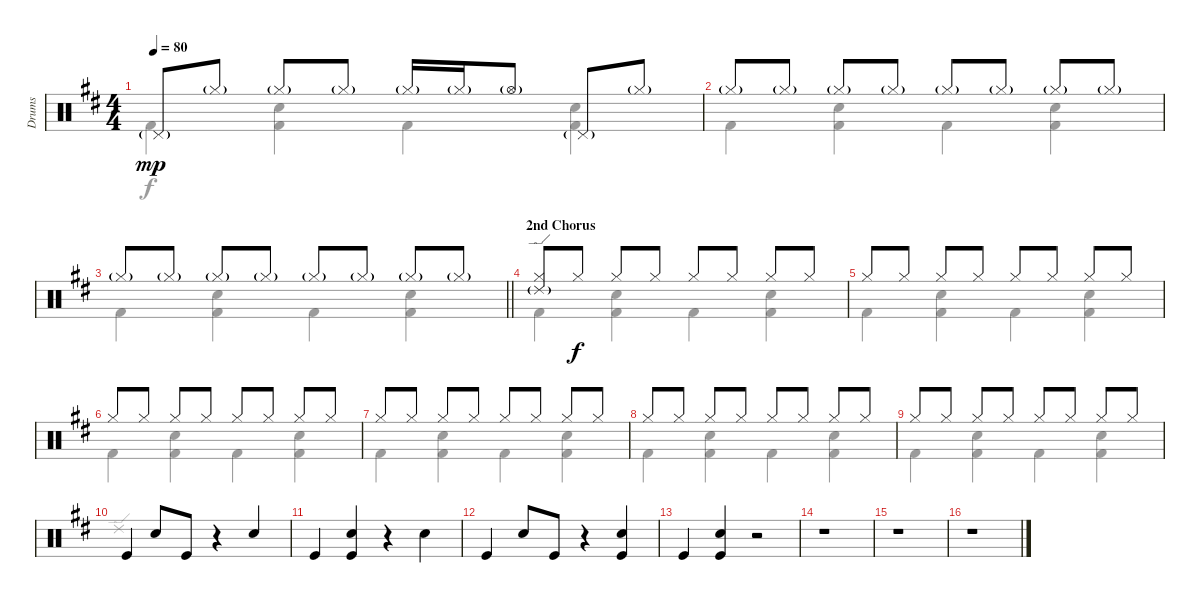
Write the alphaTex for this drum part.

\track ("Drums" "Drums") {instrument percussion}
\staff {score}
\articulation defaults
\voice
\ts (4 4)
\tempo 80
\clef neutral
\ks d "Pedal Hi-Hat (hit)"{g}.8{dy mp} "Hi-Hat (closed)"{g}.8 "Hi-Hat (closed)"{g}.8 "Hi-Hat (closed)"{g}.8 "Hi-Hat (closed)"{g}.16 "Hi-Hat (closed)"{g}.16 "Hi-Hat (open)"{g}.8 "Pedal Hi-Hat (hit)"{g}.8 "Hi-Hat (closed)"{g}.8
|
"Hi-Hat (closed)"{g}.8 "Hi-Hat (closed)"{g}.8 "Hi-Hat (closed)"{g}.8 "Hi-Hat (closed)"{g}.8 "Hi-Hat (closed)"{g}.8 "Hi-Hat (closed)"{g}.8 "Hi-Hat (closed)"{g}.8 "Hi-Hat (closed)"{g}.8 |
\barLineRight lightlight "Hi-Hat (closed)"{g}.8 "Hi-Hat (closed)"{g}.8 "Hi-Hat (closed)"{g}.8 "Hi-Hat (closed)"{g}.8 "Hi-Hat (closed)"{g}.8 "Hi-Hat (closed)"{g}.8 "Hi-Hat (closed)"{g}.8 "Hi-Hat (closed)"{g}.8
|
\section ("" "2nd Chorus")
("Hi-Hat (closed)" "Ride (edge) 2"{g}).8 "Hi-Hat (closed)".8{dy f} "Hi-Hat (closed)".8 "Hi-Hat (closed)".8 "Hi-Hat (closed)".8 "Hi-Hat (closed)".8 "Hi-Hat (closed)".8 "Hi-Hat (closed)".8 |
"Hi-Hat (closed)".8 "Hi-Hat (closed)".8 "Hi-Hat (closed)".8 "Hi-Hat (closed)".8 "Hi-Hat (closed)".8 "Hi-Hat (closed)".8 "Hi-Hat (closed)".8 "Hi-Hat (closed)".8 |
"Hi-Hat (closed)".8 "Hi-Hat (closed)".8 "Hi-Hat (closed)".8 "Hi-Hat (closed)".8 "Hi-Hat (closed)".8 "Hi-Hat (closed)".8 "Hi-Hat (closed)".8 "Hi-Hat (closed)".8 |
"Hi-Hat (closed)".8 "Hi-Hat (closed)".8 "Hi-Hat (closed)".8 "Hi-Hat (closed)".8 "Hi-Hat (closed)".8 "Hi-Hat (closed)".8 "Hi-Hat (closed)".8 "Hi-Hat (closed)".8 |
"Hi-Hat (closed)".8 "Hi-Hat (closed)".8 "Hi-Hat (closed)".8 "Hi-Hat (closed)".8 "Hi-Hat (closed)".8 "Hi-Hat (closed)".8 "Hi-Hat (closed)".8 "Hi-Hat (closed)".8 |
"Hi-Hat (closed)".8 "Hi-Hat (closed)".8 "Hi-Hat (closed)".8 "Hi-Hat (closed)".8 "Hi-Hat (closed)".8 "Hi-Hat (closed)".8 "Hi-Hat (closed)".8 "Hi-Hat (closed)".8 |
"Kick (hit)".4 "Snare (hit) 2".8 "Kick (hit)".8 r.4 "Snare (hit) 2".4 |
"Kick (hit)".4 ("Snare (hit) 2" "Kick (hit)").4 r.4 "Snare (hit) 2".4 |
"Kick (hit)".4 "Snare (hit) 2".8 "Kick (hit)".8 r.4 ("Snare (hit) 2" "Kick (hit)").4 |
"Kick (hit)".4 ("Snare (hit) 2" "Kick (hit)").4 r.2 |
r.1 |
r.1 |
r.1
\voice
\clef neutral
\ottava regular
\simile none
\ks d "Kick (hit) 2".4{dy f}
("Snare (hit) 2" "Kick (hit) 2").4 "Kick (hit) 2".4 ("Snare (hit) 2" "Kick (hit) 2").4 |
"Kick (hit) 2".4 ("Snare (hit) 2" "Kick (hit) 2").4 "Kick (hit) 2".4 ("Snare (hit) 2" "Kick (hit) 2").4 |
\barLineRight lightlight "Kick (hit) 2".4
("Snare (hit) 2" "Kick (hit) 2").4 "Kick (hit) 2".4 ("Snare (hit) 2" "Kick (hit) 2").4 |
"Kick (hit) 2".4 ("Snare (hit) 2" "Kick (hit) 2").4 "Kick (hit) 2".4 ("Snare (hit) 2" "Kick (hit) 2").4 |
"Kick (hit) 2".4 ("Snare (hit) 2" "Kick (hit) 2").4 "Kick (hit) 2".4 ("Snare (hit) 2" "Kick (hit) 2").4 |
"Kick (hit) 2".4 ("Snare (hit) 2" "Kick (hit) 2").4 "Kick (hit) 2".4 ("Snare (hit) 2" "Kick (hit) 2").4 |
"Kick (hit) 2".4 ("Snare (hit) 2" "Kick (hit) 2").4 "Kick (hit) 2".4 ("Snare (hit) 2" "Kick (hit) 2").4 |
"Kick (hit) 2".4 ("Snare (hit) 2" "Kick (hit) 2").4 "Kick (hit) 2".4 ("Snare (hit) 2" "Kick (hit) 2").4 |
"Kick (hit) 2".4 ("Snare (hit) 2" "Kick (hit) 2").4 "Kick (hit) 2".4 ("Snare (hit) 2" "Kick (hit) 2").4 |
"Ride (edge) 2".1 |
|
|
|
|
|
